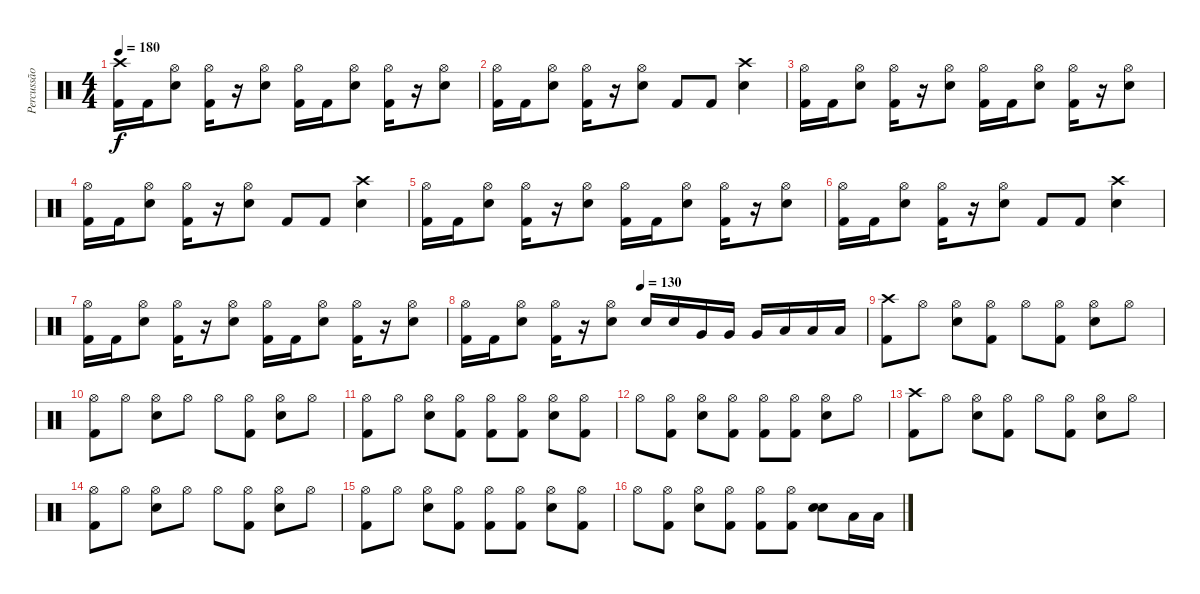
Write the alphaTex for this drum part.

\track ("Percussão" "Percussão") {instrument percussion}
\staff {score}
\articulation defaults
\ts (4 4)
\tempo 180
\clef neutral
\ks c
("Crash high (hit)" "Kick (hit) 2").16{dy f} "Kick (hit) 2".16 ("Hi-Hat (open)" "Electric Snare (hit)").8 ("Hi-Hat (open)" "Kick (hit) 2").16 r.16 ("Hi-Hat (open)" "Electric Snare (hit)").8 ("Hi-Hat (open)" "Kick (hit) 2").16 "Kick (hit) 2".16 ("Hi-Hat (open)" "Electric Snare (hit)").8 ("Hi-Hat (open)" "Kick (hit) 2").16 r.16 ("Hi-Hat (open)" "Electric Snare (hit)").8 |
("Hi-Hat (open)" "Kick (hit) 2").16 "Kick (hit) 2".16 ("Hi-Hat (open)" "Electric Snare (hit)").8 ("Hi-Hat (open)" "Kick (hit) 2").16 r.16 ("Hi-Hat (open)" "Electric Snare (hit)").8 "Kick (hit) 2".8 "Kick (hit) 2".8 ("Crash high (hit)" "Electric Snare (hit)").4 |
("Hi-Hat (open)" "Kick (hit) 2").16 "Kick (hit) 2".16 ("Hi-Hat (open)" "Electric Snare (hit)").8 ("Hi-Hat (open)" "Kick (hit) 2").16 r.16 ("Hi-Hat (open)" "Electric Snare (hit)").8 ("Hi-Hat (open)" "Kick (hit) 2").16 "Kick (hit) 2".16 ("Hi-Hat (open)" "Electric Snare (hit)").8 ("Hi-Hat (open)" "Kick (hit) 2").16 r.16 ("Hi-Hat (open)" "Electric Snare (hit)").8 |
("Hi-Hat (open)" "Kick (hit) 2").16 "Kick (hit) 2".16 ("Hi-Hat (open)" "Electric Snare (hit)").8 ("Hi-Hat (open)" "Kick (hit) 2").16 r.16 ("Hi-Hat (open)" "Electric Snare (hit)").8 "Kick (hit) 2".8 "Kick (hit) 2".8 ("Crash high (hit)" "Electric Snare (hit)").4 |
("Hi-Hat (open)" "Kick (hit) 2").16 "Kick (hit) 2".16 ("Hi-Hat (open)" "Electric Snare (hit)").8 ("Hi-Hat (open)" "Kick (hit) 2").16 r.16 ("Hi-Hat (open)" "Electric Snare (hit)").8 ("Hi-Hat (open)" "Kick (hit) 2").16 "Kick (hit) 2".16 ("Hi-Hat (open)" "Electric Snare (hit)").8 ("Hi-Hat (open)" "Kick (hit) 2").16 r.16 ("Hi-Hat (open)" "Electric Snare (hit)").8 |
("Hi-Hat (open)" "Kick (hit) 2").16 "Kick (hit) 2".16 ("Hi-Hat (open)" "Electric Snare (hit)").8 ("Hi-Hat (open)" "Kick (hit) 2").16 r.16 ("Hi-Hat (open)" "Electric Snare (hit)").8 "Kick (hit) 2".8 "Kick (hit) 2".8 ("Crash high (hit)" "Electric Snare (hit)").4 |
("Hi-Hat (open)" "Kick (hit) 2").16 "Kick (hit) 2".16 ("Hi-Hat (open)" "Electric Snare (hit)").8 ("Hi-Hat (open)" "Kick (hit) 2").16 r.16 ("Hi-Hat (open)" "Electric Snare (hit)").8 ("Hi-Hat (open)" "Kick (hit) 2").16 "Kick (hit) 2".16 ("Hi-Hat (open)" "Electric Snare (hit)").8 ("Hi-Hat (open)" "Kick (hit) 2").16 r.16 ("Hi-Hat (open)" "Electric Snare (hit)").8 |
\tempo (130 0.4375)
("Hi-Hat (open)" "Kick (hit) 2").16 "Kick (hit) 2".16 ("Hi-Hat (open)" "Electric Snare (hit)").8 ("Hi-Hat (open)" "Kick (hit) 2").16 r.16 ("Hi-Hat (open)" "Electric Snare (hit)").8 "Electric Snare (hit)".16 "Electric Snare (hit)".16 "Very Low Tom (hit)".16 "Very Low Tom (hit)".16 "Very Low Tom (hit)".16 "Low Floor Tom (hit)".16 "Low Floor Tom (hit)".16 "Low Floor Tom (hit)".16 |
("Crash high (hit)" "Kick (hit) 2").8 "Hi-Hat (open)".8 ("Hi-Hat (open)" "Electric Snare (hit)").8 ("Hi-Hat (open)" "Kick (hit) 2").8 "Hi-Hat (open)".8 ("Hi-Hat (open)" "Kick (hit) 2").8 ("Hi-Hat (open)" "Electric Snare (hit)").8 "Hi-Hat (open)".8 |
("Hi-Hat (open)" "Kick (hit) 2").8 "Hi-Hat (open)".8 ("Hi-Hat (open)" "Electric Snare (hit)").8 "Hi-Hat (open)".8 "Hi-Hat (open)".8 ("Hi-Hat (open)" "Kick (hit) 2").8 ("Hi-Hat (open)" "Electric Snare (hit)").8 "Hi-Hat (open)".8 |
("Hi-Hat (open)" "Kick (hit) 2").8 "Hi-Hat (open)".8 ("Hi-Hat (open)" "Electric Snare (hit)").8 ("Hi-Hat (open)" "Kick (hit) 2").8 ("Hi-Hat (open)" "Kick (hit) 2").8 ("Hi-Hat (open)" "Kick (hit) 2").8 ("Hi-Hat (open)" "Electric Snare (hit)").8 ("Hi-Hat (open)" "Kick (hit) 2").8 |
"Hi-Hat (open)".8 ("Hi-Hat (open)" "Kick (hit) 2").8 ("Hi-Hat (open)" "Electric Snare (hit)").8 ("Hi-Hat (open)" "Kick (hit) 2").8 ("Hi-Hat (open)" "Kick (hit) 2").8 ("Hi-Hat (open)" "Kick (hit) 2").8 ("Hi-Hat (open)" "Electric Snare (hit)").8 "Hi-Hat (open)".8 |
("Crash high (hit)" "Kick (hit) 2").8 "Hi-Hat (open)".8 ("Hi-Hat (open)" "Electric Snare (hit)").8 ("Hi-Hat (open)" "Kick (hit) 2").8 "Hi-Hat (open)".8 ("Hi-Hat (open)" "Kick (hit) 2").8 ("Hi-Hat (open)" "Electric Snare (hit)").8 "Hi-Hat (open)".8 |
("Hi-Hat (open)" "Kick (hit) 2").8 "Hi-Hat (open)".8 ("Hi-Hat (open)" "Electric Snare (hit)").8 "Hi-Hat (open)".8 "Hi-Hat (open)".8 ("Hi-Hat (open)" "Kick (hit) 2").8 ("Hi-Hat (open)" "Electric Snare (hit)").8 "Hi-Hat (open)".8 |
("Hi-Hat (open)" "Kick (hit) 2").8 "Hi-Hat (open)".8 ("Hi-Hat (open)" "Electric Snare (hit)").8 ("Hi-Hat (open)" "Kick (hit) 2").8 ("Hi-Hat (open)" "Kick (hit) 2").8 ("Hi-Hat (open)" "Kick (hit) 2").8 ("Hi-Hat (open)" "Electric Snare (hit)").8 ("Hi-Hat (open)" "Kick (hit) 2").8 |
"Hi-Hat (open)".8 ("Hi-Hat (open)" "Kick (hit) 2").8 ("Hi-Hat (open)" "Electric Snare (hit)").8 ("Hi-Hat (open)" "Kick (hit) 2").8 ("Hi-Hat (open)" "Kick (hit) 2").8 ("Hi-Hat (open)" "Kick (hit) 2").8 ("Electric Snare (hit)" "Electric Snare (hit)").8{bd 240} "Low Floor Tom (hit)".16 "Low Floor Tom (hit)".16
